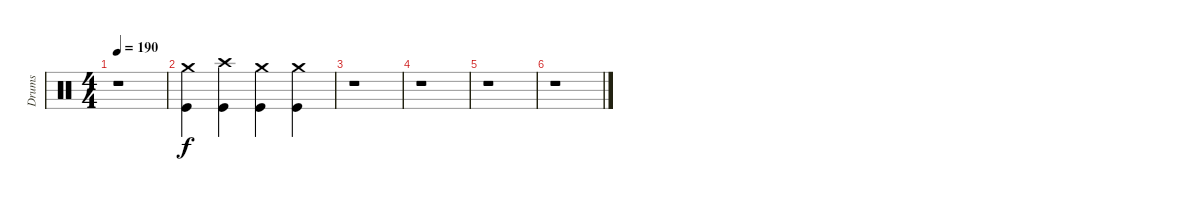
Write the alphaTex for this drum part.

\track ("Drums" "Drums") {instrument percussion}
\staff {score}
\articulation defaults
\ts (4 4)
\tempo 190
\clef neutral
\ks c
r.1{dy f} |
("Crash medium (hit)" "Kick (hit)").4 ("Crash high (hit)" "Kick (hit)").4 ("Crash medium (hit)" "Kick (hit)").4 ("Crash medium (hit)" "Kick (hit)").4 |
r.1 |
r.1 |
r.1 |
r.1
